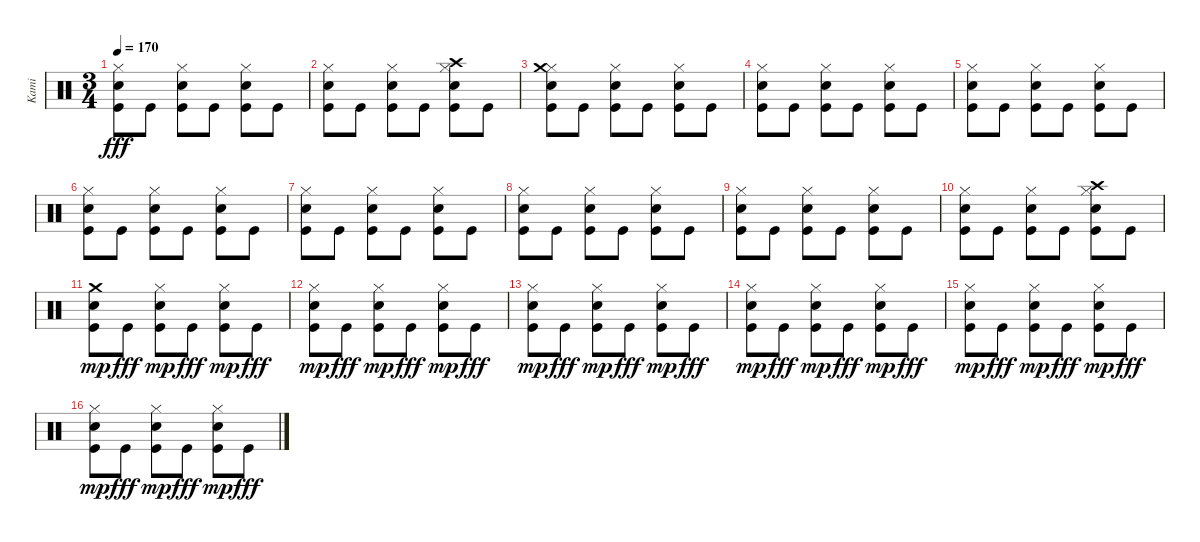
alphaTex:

\track ("Kami" "Kami") {instrument percussion}
\staff {score}
\articulation defaults
\ts (3 4)
\tempo 170
\clef neutral
\ks c
("Kick (hit)" "Snare (hit) 2" "Hi-Hat (closed)").8{dy fff} "Kick (hit)".8 ("Kick (hit)" "Snare (hit) 2" "Hi-Hat (closed)").8 "Kick (hit)".8 ("Kick (hit)" "Snare (hit) 2" "Hi-Hat (closed)").8 "Kick (hit)".8 |
("Kick (hit)" "Snare (hit) 2" "Hi-Hat (closed)").8 "Kick (hit)".8 ("Kick (hit)" "Snare (hit) 2" "Hi-Hat (closed)").8 "Kick (hit)".8 ("Kick (hit)" "Snare (hit) 2" "Hi-Hat (closed)" "Crash high (hit)").8 "Kick (hit)".8 |
("Kick (hit)" "Snare (hit) 2" "Hi-Hat (closed)" "Crash medium (hit)").8 "Kick (hit)".8 ("Kick (hit)" "Snare (hit) 2" "Hi-Hat (closed)").8 "Kick (hit)".8 ("Kick (hit)" "Snare (hit) 2" "Hi-Hat (closed)").8 "Kick (hit)".8 |
("Kick (hit)" "Snare (hit) 2" "Hi-Hat (closed)").8 "Kick (hit)".8 ("Kick (hit)" "Snare (hit) 2" "Hi-Hat (closed)").8 "Kick (hit)".8 ("Kick (hit)" "Snare (hit) 2" "Hi-Hat (closed)").8 "Kick (hit)".8 |
("Kick (hit)" "Snare (hit) 2" "Hi-Hat (closed)").8 "Kick (hit)".8 ("Kick (hit)" "Snare (hit) 2" "Hi-Hat (closed)").8 "Kick (hit)".8 ("Kick (hit)" "Snare (hit) 2" "Hi-Hat (closed)").8 "Kick (hit)".8 |
("Kick (hit)" "Snare (hit) 2" "Hi-Hat (closed)").8 "Kick (hit)".8 ("Kick (hit)" "Snare (hit) 2" "Hi-Hat (closed)").8 "Kick (hit)".8 ("Kick (hit)" "Snare (hit) 2" "Hi-Hat (closed)").8 "Kick (hit)".8 |
("Kick (hit)" "Snare (hit) 2" "Hi-Hat (closed)").8 "Kick (hit)".8 ("Kick (hit)" "Snare (hit) 2" "Hi-Hat (closed)").8 "Kick (hit)".8 ("Kick (hit)" "Snare (hit) 2" "Hi-Hat (closed)").8 "Kick (hit)".8 |
("Kick (hit)" "Snare (hit) 2" "Hi-Hat (closed)").8 "Kick (hit)".8 ("Kick (hit)" "Snare (hit) 2" "Hi-Hat (closed)").8 "Kick (hit)".8 ("Kick (hit)" "Snare (hit) 2" "Hi-Hat (closed)").8 "Kick (hit)".8 |
("Kick (hit)" "Snare (hit) 2" "Hi-Hat (closed)").8 "Kick (hit)".8 ("Kick (hit)" "Snare (hit) 2" "Hi-Hat (closed)").8 "Kick (hit)".8 ("Kick (hit)" "Snare (hit) 2" "Hi-Hat (closed)").8 "Kick (hit)".8 |
("Kick (hit)" "Snare (hit) 2" "Hi-Hat (closed)").8 "Kick (hit)".8 ("Kick (hit)" "Snare (hit) 2" "Hi-Hat (closed)").8 "Kick (hit)".8 ("Kick (hit)" "Snare (hit) 2" "Hi-Hat (closed)" "Crash high (hit)").8 "Kick (hit)".8 |
("Kick (hit)" "Crash medium (hit)" "Snare (hit) 2").8{dy mp volume 12} "Kick (hit)".8{dy fff} ("Kick (hit)" "Snare (hit) 2" "Hi-Hat (closed)").8{dy mp} "Kick (hit)".8{dy fff} ("Kick (hit)" "Hi-Hat (closed)" "Snare (hit) 2").8{dy mp} "Kick (hit)".8{dy fff} |
("Kick (hit)" "Hi-Hat (closed)" "Snare (hit) 2").8{dy mp} "Kick (hit)".8{dy fff} ("Kick (hit)" "Hi-Hat (closed)" "Snare (hit) 2").8{dy mp} "Kick (hit)".8{dy fff} ("Kick (hit)" "Hi-Hat (closed)" "Snare (hit) 2").8{dy mp} "Kick (hit)".8{dy fff} |
("Kick (hit)" "Hi-Hat (closed)" "Snare (hit) 2").8{dy mp} "Kick (hit)".8{dy fff} ("Kick (hit)" "Hi-Hat (closed)" "Snare (hit) 2").8{dy mp} "Kick (hit)".8{dy fff} ("Kick (hit)" "Hi-Hat (closed)" "Snare (hit) 2").8{dy mp} "Kick (hit)".8{dy fff} |
("Kick (hit)" "Hi-Hat (closed)" "Snare (hit) 2").8{dy mp} "Kick (hit)".8{dy fff} ("Kick (hit)" "Hi-Hat (closed)" "Snare (hit) 2").8{dy mp} "Kick (hit)".8{dy fff} ("Kick (hit)" "Hi-Hat (closed)" "Snare (hit) 2").8{dy mp} "Kick (hit)".8{dy fff} |
("Kick (hit)" "Hi-Hat (closed)" "Snare (hit) 2").8{dy mp} "Kick (hit)".8{dy fff} ("Kick (hit)" "Hi-Hat (closed)" "Snare (hit) 2").8{dy mp} "Kick (hit)".8{dy fff} ("Kick (hit)" "Hi-Hat (closed)" "Snare (hit) 2").8{dy mp} "Kick (hit)".8{dy fff} |
("Kick (hit)" "Hi-Hat (closed)" "Snare (hit) 2").8{dy mp} "Kick (hit)".8{dy fff} ("Kick (hit)" "Hi-Hat (closed)" "Snare (hit) 2").8{dy mp} "Kick (hit)".8{dy fff} ("Kick (hit)" "Hi-Hat (closed)" "Snare (hit) 2").8{dy mp} "Kick (hit)".8{dy fff}
